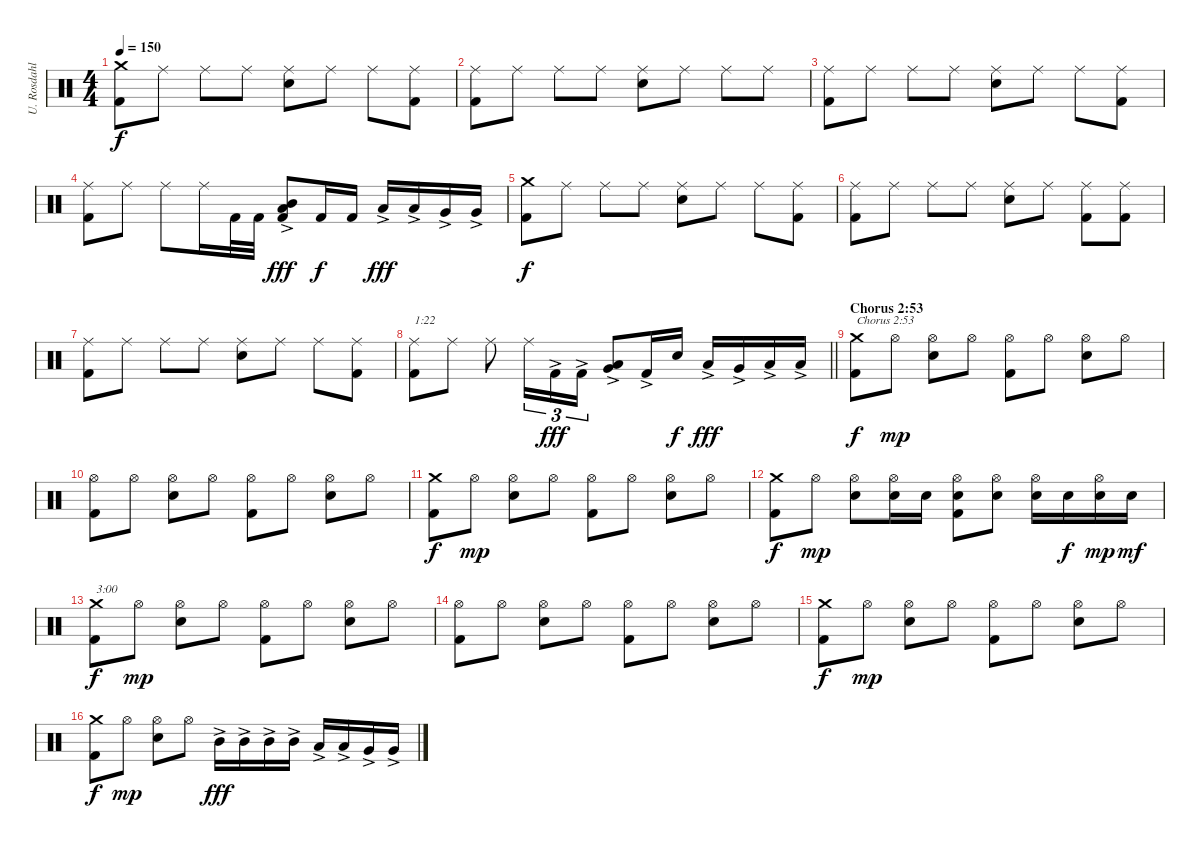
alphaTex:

\track ("U. Rosdahl" "U. Rosdahl") {instrument percussion}
\staff {score}
\articulation defaults
\ts (4 4)
\tempo 150
\clef neutral
\ks c
("Kick (hit) 2" "Crash medium (hit)").8{dy f} "Ride (middle)".8 "Ride (middle)".8 "Ride (middle)".8 ("Electric Snare (hit)" "Ride (middle)").8 "Ride (middle)".8 "Ride (middle)".8 ("Kick (hit) 2" "Ride (middle)").8 |
("Kick (hit) 2" "Ride (middle)").8 "Ride (middle)".8 "Ride (middle)".8 "Ride (middle)".8 ("Electric Snare (hit)" "Ride (middle)").8 "Ride (middle)".8 "Ride (middle)".8 "Ride (middle)".8 |
("Kick (hit) 2" "Ride (middle)").8 "Ride (middle)".8 "Ride (middle)".8 "Ride (middle)".8 ("Electric Snare (hit)" "Ride (middle)").8 "Ride (middle)".8 "Ride (middle)".8 ("Kick (hit) 2" "Ride (middle)").8 |
("Kick (hit) 2" "Ride (middle)").8 "Ride (middle)".8 "Ride (middle)".8 "Ride (middle)".16 "Kick (hit) 2".32 "Kick (hit) 2".32 ("Kick (hit) 2" "Low Tom (hit)"{ac} "Mid Tom (hit)"{ac}).8{dy fff} "Kick (hit) 2".16{dy f} "Kick (hit) 2".16 "Low Tom (hit)"{ac}.16{dy fff} "Low Tom (hit)"{ac}.16 "Very Low Tom (hit)"{ac}.16 "Very Low Tom (hit)"{ac}.16 |
("Kick (hit) 2" "Crash medium (hit)").8{dy f} "Ride (middle)".8 "Ride (middle)".8 "Ride (middle)".8 ("Electric Snare (hit)" "Ride (middle)").8 "Ride (middle)".8 "Ride (middle)".8 ("Kick (hit) 2" "Ride (middle)").8 |
("Kick (hit) 2" "Ride (middle)").8 "Ride (middle)".8 "Ride (middle)".8 "Ride (middle)".8 ("Electric Snare (hit)" "Ride (middle)").8 "Ride (middle)".8 ("Kick (hit) 2" "Ride (middle)").8 ("Kick (hit) 2" "Ride (middle)").8 |
("Kick (hit) 2" "Ride (middle)").8 "Ride (middle)".8 "Ride (middle)".8 "Ride (middle)".8 ("Electric Snare (hit)" "Ride (middle)").8 "Ride (middle)".8 "Ride (middle)".8 ("Kick (hit) 2" "Ride (middle)").8 |
\barLineRight lightlight
("Kick (hit) 2" "Ride (middle)").8{txt "1:22"} "Ride (middle)".8 "Ride (middle)".8 "Ride (middle)".16{tu (3 2)} "Kick (hit) 2"{ac}.16{tu (3 2) dy fff} "Kick (hit) 2"{ac}.16{tu (3 2)} ("Low Tom (hit)"{ac} "Very Low Tom (hit)"{ac}).8 "Kick (hit) 2"{ac}.16 "Electric Snare (hit)".16{dy f} "Low Tom (hit)"{ac}.16{dy fff} "Very Low Tom (hit)"{ac}.16 "Low Floor Tom (hit)"{ac}.16 "Low Floor Tom (hit)"{ac}.16 |
\section ("" "Chorus 2:53")
("Kick (hit) 2" "Crash medium (hit)").8{txt "Chorus 2:53" dy f} "Hi-Hat (open)".8{dy mp} ("Electric Snare (hit)" "Hi-Hat (open)").8 "Hi-Hat (open)".8 ("Kick (hit) 2" "Hi-Hat (open)").8 "Hi-Hat (open)".8 ("Electric Snare (hit)" "Hi-Hat (open)").8 "Hi-Hat (open)".8 |
("Kick (hit) 2" "Hi-Hat (open)").8 "Hi-Hat (open)".8 ("Electric Snare (hit)" "Hi-Hat (open)").8 "Hi-Hat (open)".8 ("Kick (hit) 2" "Hi-Hat (open)").8 "Hi-Hat (open)".8 ("Electric Snare (hit)" "Hi-Hat (open)").8 "Hi-Hat (open)".8 |
("Kick (hit) 2" "Crash medium (hit)").8{dy f} "Hi-Hat (open)".8{dy mp} ("Electric Snare (hit)" "Hi-Hat (open)").8 "Hi-Hat (open)".8 ("Kick (hit) 2" "Hi-Hat (open)").8 "Hi-Hat (open)".8 ("Electric Snare (hit)" "Hi-Hat (open)").8 "Hi-Hat (open)".8 |
("Kick (hit) 2" "Crash medium (hit)").8{dy f} "Hi-Hat (open)".8{dy mp} ("Electric Snare (hit)" "Hi-Hat (open)").8 ("Electric Snare (hit)" "Hi-Hat (open)").16 "Electric Snare (hit)".16 ("Kick (hit) 2" "Electric Snare (hit)" "Hi-Hat (open)").8 ("Electric Snare (hit)" "Hi-Hat (open)").8 ("Electric Snare (hit)" "Hi-Hat (open)").16 "Electric Snare (hit)".16{dy f} ("Electric Snare (hit)" "Hi-Hat (open)").16{dy mp} "Electric Snare (hit)".16{dy mf} |
("Kick (hit) 2" "Crash medium (hit)").8{txt "3:00" dy f} "Hi-Hat (open)".8{dy mp} ("Electric Snare (hit)" "Hi-Hat (open)").8 "Hi-Hat (open)".8 ("Kick (hit) 2" "Hi-Hat (open)").8 "Hi-Hat (open)".8 ("Electric Snare (hit)" "Hi-Hat (open)").8 "Hi-Hat (open)".8 |
("Kick (hit) 2" "Hi-Hat (open)").8 "Hi-Hat (open)".8 ("Electric Snare (hit)" "Hi-Hat (open)").8 "Hi-Hat (open)".8 ("Kick (hit) 2" "Hi-Hat (open)").8 "Hi-Hat (open)".8 ("Electric Snare (hit)" "Hi-Hat (open)").8 "Hi-Hat (open)".8 |
("Kick (hit) 2" "Crash medium (hit)").8{dy f} "Hi-Hat (open)".8{dy mp} ("Electric Snare (hit)" "Hi-Hat (open)").8 "Hi-Hat (open)".8 ("Kick (hit) 2" "Hi-Hat (open)").8 "Hi-Hat (open)".8 ("Electric Snare (hit)" "Hi-Hat (open)").8 "Hi-Hat (open)".8 |
("Kick (hit) 2" "Crash medium (hit)").8{dy f} "Hi-Hat (open)".8{dy mp} ("Electric Snare (hit)" "Hi-Hat (open)").8 "Hi-Hat (open)".8 "Mid Tom (hit)"{ac}.16{dy fff} "Mid Tom (hit)"{ac}.16 "Mid Tom (hit)"{ac}.16 "Mid Tom (hit)"{ac}.16 "Low Tom (hit)"{ac}.16 "Low Tom (hit)"{ac}.16 "Very Low Tom (hit)"{ac}.16 "Very Low Tom (hit)"{ac}.16
